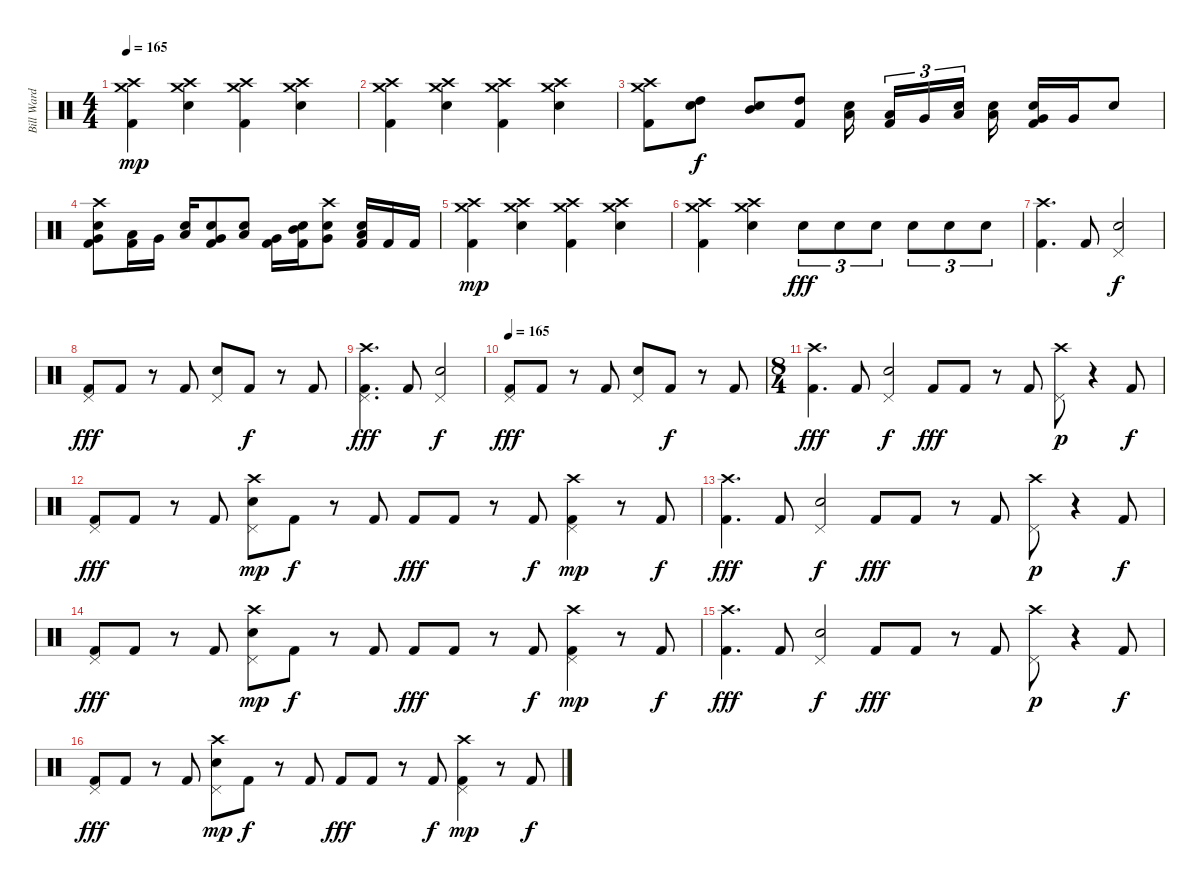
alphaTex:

\track ("Bill Ward" "Bill Ward") {instrument percussion}
\staff {score}
\articulation defaults
\ts (4 4)
\tempo 165
\clef neutral
\ks c
("Crash high (hit)" "Crash medium (hit)" "Kick (hit) 2").4{dy mp} ("Crash high (hit)" "Crash medium (hit)" "Snare (hit) 2").4 ("Crash high (hit)" "Crash medium (hit)" "Kick (hit) 2").4 ("Crash high (hit)" "Crash medium (hit)" "Snare (hit) 2").4 |
("Crash high (hit)" "Crash medium (hit)" "Kick (hit) 2").4 ("Crash high (hit)" "Crash medium (hit)" "Snare (hit) 2").4 ("Crash high (hit)" "Crash medium (hit)" "Kick (hit) 2").4 ("Crash high (hit)" "Crash medium (hit)" "Snare (hit) 2").4 |
("Crash high (hit)" "Crash medium (hit)" "Kick (hit) 2").8 ("High Tom (hit)" "Snare (hit) 2").8{dy f} ("Mid Tom (hit)" "Snare (hit) 2").8 ("High Tom (hit)" "Kick (hit) 2").8 ("Low Tom (hit)" "Snare (hit) 2").16{beam splitsecondary} ("Low Tom (hit)" "Kick (hit) 2").16{tu (3 2)} "Very Low Tom (hit)".16{tu (3 2)} ("Low Tom (hit)" "Snare (hit) 2").16{tu (3 2) beam splitsecondary} ("Low Tom (hit)" "Snare (hit) 2").16 ("Very Low Tom (hit)" "Snare (hit) 2" "Kick (hit) 2").16 "Very Low Tom (hit)".16 "Snare (hit) 2".8 |
("Crash high (hit)" "Very Low Tom (hit)" "Snare (hit) 2" "Kick (hit) 2").8 ("Low Tom (hit)" "Kick (hit) 2").16 "Very Low Tom (hit)".16 ("Low Tom (hit)" "Snare (hit) 2").16 ("Very Low Tom (hit)" "Snare (hit) 2" "Kick (hit) 2").8 ("Low Tom (hit)" "Snare (hit) 2").8 ("Very Low Tom (hit)" "Kick (hit) 2").16 ("Mid Tom (hit)" "Snare (hit) 2" "Kick (hit) 2").16 ("Crash high (hit)" "Very Low Tom (hit)" "Snare (hit) 2").8 ("Low Tom (hit)" "Snare (hit) 2" "Kick (hit) 2").16 "Kick (hit) 2".16 "Kick (hit) 2".16 |
("Crash high (hit)" "Crash medium (hit)" "Kick (hit) 2").4{dy mp} ("Crash high (hit)" "Crash medium (hit)" "Snare (hit) 2").4 ("Crash high (hit)" "Crash medium (hit)" "Kick (hit) 2").4 ("Crash high (hit)" "Crash medium (hit)" "Snare (hit) 2").4 |
("Crash high (hit)" "Crash medium (hit)" "Kick (hit) 2").4 ("Crash high (hit)" "Crash medium (hit)" "Snare (hit) 2").4 "Snare (hit) 2".8{tu (3 2) dy fff} "Snare (hit) 2".8{tu (3 2)} "Snare (hit) 2".8{tu (3 2)} "Snare (hit) 2".8{tu (3 2)} "Snare (hit) 2".8{tu (3 2)} "Snare (hit) 2".8{tu (3 2)} |
("Crash high (hit)" "Kick (hit) 2").4{d} "Kick (hit) 2".8 ("Pedal Hi-Hat (hit)" "Snare (hit) 2").2{dy f} |
("Pedal Hi-Hat (hit)" "Kick (hit) 2").8{dy fff} "Kick (hit) 2".8 r.8 "Kick (hit) 2".8 ("Pedal Hi-Hat (hit)" "Snare (hit) 2").8 "Kick (hit) 2".8{dy f} r.8 "Kick (hit) 2".8 |
("Crash high (hit)" "Pedal Hi-Hat (hit)" "Kick (hit) 2").4{d dy fff} "Kick (hit) 2".8 ("Pedal Hi-Hat (hit)" "Snare (hit) 2").2{dy f} |
\tempo 165
("Pedal Hi-Hat (hit)" "Kick (hit) 2").8{dy fff} "Kick (hit) 2".8 r.8 "Kick (hit) 2".8 ("Pedal Hi-Hat (hit)" "Snare (hit) 2").8 "Kick (hit) 2".8{dy f} r.8 "Kick (hit) 2".8 |
\ts (8 4)
("Crash high (hit)" "Kick (hit) 2").4{d dy fff} "Kick (hit) 2".8 ("Pedal Hi-Hat (hit)" "Snare (hit) 2").2{dy f} "Kick (hit) 2".8{dy fff} "Kick (hit) 2".8 r.8 "Kick (hit) 2".8 ("Crash high (hit)" "Pedal Hi-Hat (hit)").8{dy p} r.4 "Kick (hit) 2".8{dy f} |
("Pedal Hi-Hat (hit)" "Kick (hit) 2").8{dy fff} "Kick (hit) 2".8 r.8 "Kick (hit) 2".8 ("Crash high (hit)" "Pedal Hi-Hat (hit)" "Snare (hit) 2").8{dy mp} "Kick (hit) 2".8{dy f} r.8 "Kick (hit) 2".8 "Kick (hit) 2".8{dy fff} "Kick (hit) 2".8 r.8 "Kick (hit) 2".8{dy f} ("Crash high (hit)" "Pedal Hi-Hat (hit)" "Kick (hit) 2").4{dy mp} r.8 "Kick (hit) 2".8{dy f} |
("Crash high (hit)" "Kick (hit) 2").4{d dy fff} "Kick (hit) 2".8 ("Pedal Hi-Hat (hit)" "Snare (hit) 2").2{dy f} "Kick (hit) 2".8{dy fff} "Kick (hit) 2".8 r.8 "Kick (hit) 2".8 ("Crash high (hit)" "Pedal Hi-Hat (hit)").8{dy p} r.4 "Kick (hit) 2".8{dy f} |
("Pedal Hi-Hat (hit)" "Kick (hit) 2").8{dy fff} "Kick (hit) 2".8 r.8 "Kick (hit) 2".8 ("Crash high (hit)" "Pedal Hi-Hat (hit)" "Snare (hit) 2").8{dy mp} "Kick (hit) 2".8{dy f} r.8 "Kick (hit) 2".8 "Kick (hit) 2".8{dy fff} "Kick (hit) 2".8 r.8 "Kick (hit) 2".8{dy f} ("Crash high (hit)" "Pedal Hi-Hat (hit)" "Kick (hit) 2").4{dy mp} r.8 "Kick (hit) 2".8{dy f} |
("Crash high (hit)" "Kick (hit) 2").4{d dy fff} "Kick (hit) 2".8 ("Pedal Hi-Hat (hit)" "Snare (hit) 2").2{dy f} "Kick (hit) 2".8{dy fff} "Kick (hit) 2".8 r.8 "Kick (hit) 2".8 ("Crash high (hit)" "Pedal Hi-Hat (hit)").8{dy p} r.4 "Kick (hit) 2".8{dy f} |
("Pedal Hi-Hat (hit)" "Kick (hit) 2").8{dy fff} "Kick (hit) 2".8 r.8 "Kick (hit) 2".8 ("Crash high (hit)" "Pedal Hi-Hat (hit)" "Snare (hit) 2").8{dy mp} "Kick (hit) 2".8{dy f} r.8 "Kick (hit) 2".8 "Kick (hit) 2".8{dy fff} "Kick (hit) 2".8 r.8 "Kick (hit) 2".8{dy f} ("Crash high (hit)" "Pedal Hi-Hat (hit)" "Kick (hit) 2").4{dy mp} r.8 "Kick (hit) 2".8{dy f}
